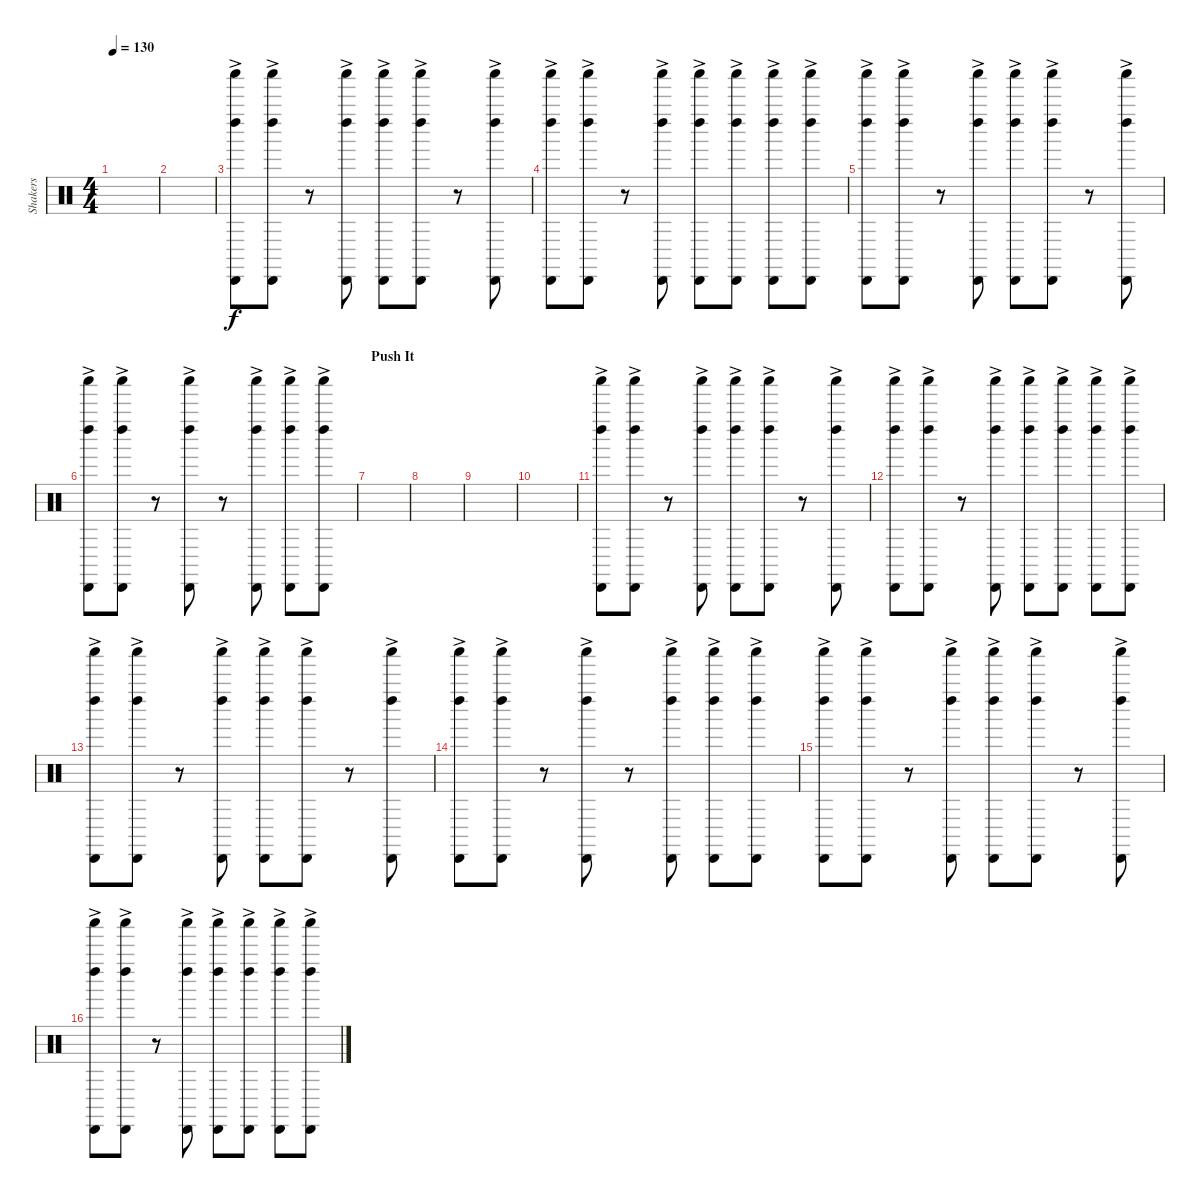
\track ("Shakers" "Shakers") {instrument percussion}
\staff {score}
\articulation defaults
\ts (4 4)
\tempo 130
\clef neutral
\ks c
|
|
("Cabasa (hit)"{ac} "Left Maraca (hit)"{ac} "Shaker (hit)"{ac}).8 ("Cabasa (hit)"{ac} "Left Maraca (hit)"{ac} "Shaker (hit)"{ac}).8 r.8 ("Cabasa (hit)"{ac} "Left Maraca (hit)"{ac} "Shaker (hit)"{ac}).8 ("Cabasa (hit)"{ac} "Left Maraca (hit)"{ac} "Shaker (hit)"{ac}).8 ("Cabasa (hit)"{ac} "Left Maraca (hit)"{ac} "Shaker (hit)"{ac}).8 r.8 ("Cabasa (hit)"{ac} "Left Maraca (hit)"{ac} "Shaker (hit)"{ac}).8 |
("Cabasa (hit)"{ac} "Left Maraca (hit)"{ac} "Shaker (hit)"{ac}).8 ("Cabasa (hit)"{ac} "Left Maraca (hit)"{ac} "Shaker (hit)"{ac}).8 r.8 ("Cabasa (hit)"{ac} "Left Maraca (hit)"{ac} "Shaker (hit)"{ac}).8 ("Cabasa (hit)"{ac} "Left Maraca (hit)"{ac} "Shaker (hit)"{ac}).8 ("Cabasa (hit)"{ac} "Left Maraca (hit)"{ac} "Shaker (hit)"{ac}).8 ("Cabasa (hit)"{ac} "Left Maraca (hit)"{ac} "Shaker (hit)"{ac}).8 ("Cabasa (hit)"{ac} "Left Maraca (hit)"{ac} "Shaker (hit)"{ac}).8 |
("Cabasa (hit)"{ac} "Left Maraca (hit)"{ac} "Shaker (hit)"{ac}).8 ("Cabasa (hit)"{ac} "Left Maraca (hit)"{ac} "Shaker (hit)"{ac}).8 r.8 ("Cabasa (hit)"{ac} "Left Maraca (hit)"{ac} "Shaker (hit)"{ac}).8 ("Cabasa (hit)"{ac} "Left Maraca (hit)"{ac} "Shaker (hit)"{ac}).8 ("Cabasa (hit)"{ac} "Left Maraca (hit)"{ac} "Shaker (hit)"{ac}).8 r.8 ("Cabasa (hit)"{ac} "Left Maraca (hit)"{ac} "Shaker (hit)"{ac}).8 |
("Cabasa (hit)"{ac} "Left Maraca (hit)"{ac} "Shaker (hit)"{ac}).8 ("Cabasa (hit)"{ac} "Left Maraca (hit)"{ac} "Shaker (hit)"{ac}).8 r.8 ("Cabasa (hit)"{ac} "Left Maraca (hit)"{ac} "Shaker (hit)"{ac}).8 r.8 ("Cabasa (hit)"{ac} "Left Maraca (hit)"{ac} "Shaker (hit)"{ac}).8 ("Cabasa (hit)"{ac} "Left Maraca (hit)"{ac} "Shaker (hit)"{ac}).8 ("Cabasa (hit)"{ac} "Left Maraca (hit)"{ac} "Shaker (hit)"{ac}).8 |
\section ("" "Push It")
|
|
|
|
("Cabasa (hit)"{ac} "Left Maraca (hit)"{ac} "Shaker (hit)"{ac}).8 ("Cabasa (hit)"{ac} "Left Maraca (hit)"{ac} "Shaker (hit)"{ac}).8 r.8 ("Cabasa (hit)"{ac} "Left Maraca (hit)"{ac} "Shaker (hit)"{ac}).8 ("Cabasa (hit)"{ac} "Left Maraca (hit)"{ac} "Shaker (hit)"{ac}).8 ("Cabasa (hit)"{ac} "Left Maraca (hit)"{ac} "Shaker (hit)"{ac}).8 r.8 ("Cabasa (hit)"{ac} "Left Maraca (hit)"{ac} "Shaker (hit)"{ac}).8 |
("Cabasa (hit)"{ac} "Left Maraca (hit)"{ac} "Shaker (hit)"{ac}).8 ("Cabasa (hit)"{ac} "Left Maraca (hit)"{ac} "Shaker (hit)"{ac}).8 r.8 ("Cabasa (hit)"{ac} "Left Maraca (hit)"{ac} "Shaker (hit)"{ac}).8 ("Cabasa (hit)"{ac} "Left Maraca (hit)"{ac} "Shaker (hit)"{ac}).8 ("Cabasa (hit)"{ac} "Left Maraca (hit)"{ac} "Shaker (hit)"{ac}).8 ("Cabasa (hit)"{ac} "Left Maraca (hit)"{ac} "Shaker (hit)"{ac}).8 ("Cabasa (hit)"{ac} "Left Maraca (hit)"{ac} "Shaker (hit)"{ac}).8 |
("Cabasa (hit)"{ac} "Left Maraca (hit)"{ac} "Shaker (hit)"{ac}).8 ("Cabasa (hit)"{ac} "Left Maraca (hit)"{ac} "Shaker (hit)"{ac}).8 r.8 ("Cabasa (hit)"{ac} "Left Maraca (hit)"{ac} "Shaker (hit)"{ac}).8 ("Cabasa (hit)"{ac} "Left Maraca (hit)"{ac} "Shaker (hit)"{ac}).8 ("Cabasa (hit)"{ac} "Left Maraca (hit)"{ac} "Shaker (hit)"{ac}).8 r.8 ("Cabasa (hit)"{ac} "Left Maraca (hit)"{ac} "Shaker (hit)"{ac}).8 |
("Cabasa (hit)"{ac} "Left Maraca (hit)"{ac} "Shaker (hit)"{ac}).8 ("Cabasa (hit)"{ac} "Left Maraca (hit)"{ac} "Shaker (hit)"{ac}).8 r.8 ("Cabasa (hit)"{ac} "Left Maraca (hit)"{ac} "Shaker (hit)"{ac}).8 r.8 ("Cabasa (hit)"{ac} "Left Maraca (hit)"{ac} "Shaker (hit)"{ac}).8 ("Cabasa (hit)"{ac} "Left Maraca (hit)"{ac} "Shaker (hit)"{ac}).8 ("Cabasa (hit)"{ac} "Left Maraca (hit)"{ac} "Shaker (hit)"{ac}).8 |
("Cabasa (hit)"{ac} "Left Maraca (hit)"{ac} "Shaker (hit)"{ac}).8 ("Cabasa (hit)"{ac} "Left Maraca (hit)"{ac} "Shaker (hit)"{ac}).8 r.8 ("Cabasa (hit)"{ac} "Left Maraca (hit)"{ac} "Shaker (hit)"{ac}).8 ("Cabasa (hit)"{ac} "Left Maraca (hit)"{ac} "Shaker (hit)"{ac}).8 ("Cabasa (hit)"{ac} "Left Maraca (hit)"{ac} "Shaker (hit)"{ac}).8 r.8 ("Cabasa (hit)"{ac} "Left Maraca (hit)"{ac} "Shaker (hit)"{ac}).8 |
("Cabasa (hit)"{ac} "Left Maraca (hit)"{ac} "Shaker (hit)"{ac}).8 ("Cabasa (hit)"{ac} "Left Maraca (hit)"{ac} "Shaker (hit)"{ac}).8 r.8 ("Cabasa (hit)"{ac} "Left Maraca (hit)"{ac} "Shaker (hit)"{ac}).8 ("Cabasa (hit)"{ac} "Left Maraca (hit)"{ac} "Shaker (hit)"{ac}).8 ("Cabasa (hit)"{ac} "Left Maraca (hit)"{ac} "Shaker (hit)"{ac}).8 ("Cabasa (hit)"{ac} "Left Maraca (hit)"{ac} "Shaker (hit)"{ac}).8 ("Cabasa (hit)"{ac} "Left Maraca (hit)"{ac} "Shaker (hit)"{ac}).8
